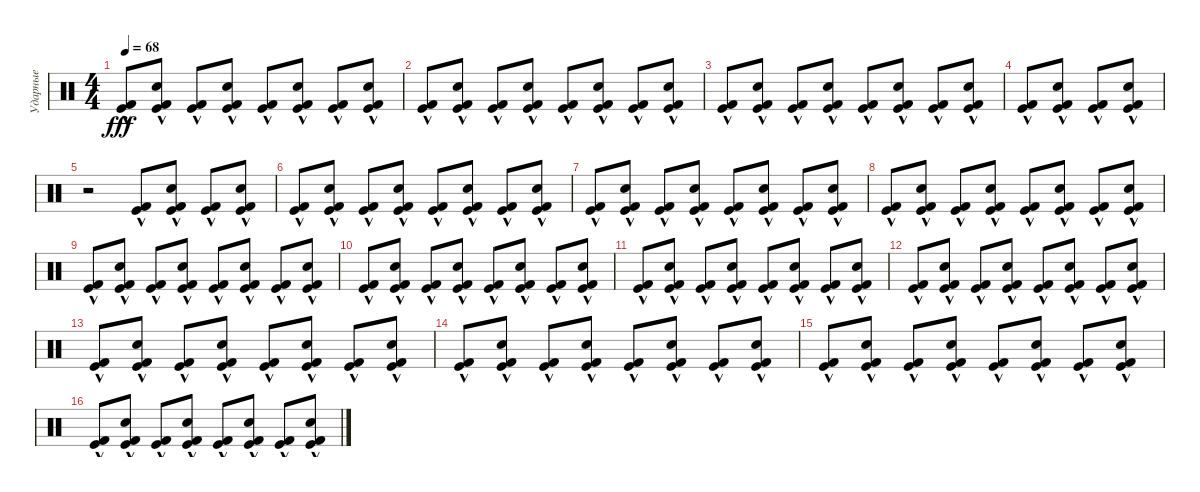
\track ("Ударные" "Ударные") {instrument percussion}
\staff {score}
\articulation defaults
\ts (4 4)
\tempo 68
\clef neutral
\ks c
("Kick (hit)"{hac} "Kick (hit) 2"{hac}).8{dy fff} ("Kick (hit)"{hac} "Kick (hit) 2"{hac} "Hand Clap (hit)").8 ("Kick (hit)"{hac} "Kick (hit) 2"{hac}).8 ("Kick (hit)"{hac} "Kick (hit) 2"{hac} "Hand Clap (hit)").8 ("Kick (hit)"{hac} "Kick (hit) 2"{hac}).8 ("Kick (hit)"{hac} "Kick (hit) 2"{hac} "Hand Clap (hit)").8 ("Kick (hit)"{hac} "Kick (hit) 2"{hac}).8 ("Kick (hit)"{hac} "Kick (hit) 2"{hac} "Hand Clap (hit)").8 |
("Kick (hit)"{hac} "Kick (hit) 2"{hac}).8 ("Kick (hit)"{hac} "Kick (hit) 2"{hac} "Hand Clap (hit)").8 ("Kick (hit)"{hac} "Kick (hit) 2"{hac}).8 ("Kick (hit)"{hac} "Kick (hit) 2"{hac} "Hand Clap (hit)").8 ("Kick (hit)"{hac} "Kick (hit) 2"{hac}).8 ("Kick (hit)"{hac} "Kick (hit) 2"{hac} "Hand Clap (hit)").8 ("Kick (hit)"{hac} "Kick (hit) 2"{hac}).8 ("Kick (hit)"{hac} "Kick (hit) 2"{hac} "Hand Clap (hit)").8 |
("Kick (hit)"{hac} "Kick (hit) 2"{hac}).8 ("Kick (hit)"{hac} "Kick (hit) 2"{hac} "Hand Clap (hit)").8 ("Kick (hit)"{hac} "Kick (hit) 2"{hac}).8 ("Kick (hit)"{hac} "Kick (hit) 2"{hac} "Hand Clap (hit)").8 ("Kick (hit)"{hac} "Kick (hit) 2"{hac}).8 ("Kick (hit)"{hac} "Kick (hit) 2"{hac} "Hand Clap (hit)").8 ("Kick (hit)"{hac} "Kick (hit) 2"{hac}).8 ("Kick (hit)"{hac} "Kick (hit) 2"{hac} "Hand Clap (hit)").8 |
("Kick (hit)"{hac} "Kick (hit) 2"{hac}).8 ("Kick (hit)"{hac} "Kick (hit) 2"{hac} "Hand Clap (hit)").8 ("Kick (hit)"{hac} "Kick (hit) 2"{hac}).8 ("Kick (hit)"{hac} "Kick (hit) 2"{hac} "Hand Clap (hit)").8 |
r.2 ("Kick (hit)"{hac} "Kick (hit) 2"{hac}).8 ("Kick (hit)"{hac} "Kick (hit) 2"{hac} "Hand Clap (hit)").8 ("Kick (hit)"{hac} "Kick (hit) 2"{hac}).8 ("Kick (hit)"{hac} "Kick (hit) 2"{hac} "Hand Clap (hit)").8 |
("Kick (hit)"{hac} "Kick (hit) 2"{hac}).8 ("Kick (hit)"{hac} "Kick (hit) 2"{hac} "Hand Clap (hit)").8 ("Kick (hit)"{hac} "Kick (hit) 2"{hac}).8 ("Kick (hit)"{hac} "Kick (hit) 2"{hac} "Hand Clap (hit)").8 ("Kick (hit)"{hac} "Kick (hit) 2"{hac}).8 ("Kick (hit)"{hac} "Kick (hit) 2"{hac} "Hand Clap (hit)").8 ("Kick (hit)"{hac} "Kick (hit) 2"{hac}).8 ("Kick (hit)"{hac} "Kick (hit) 2"{hac} "Hand Clap (hit)").8 |
("Kick (hit)"{hac} "Kick (hit) 2"{hac}).8 ("Kick (hit)"{hac} "Kick (hit) 2"{hac} "Hand Clap (hit)").8 ("Kick (hit)"{hac} "Kick (hit) 2"{hac}).8 ("Kick (hit)"{hac} "Kick (hit) 2"{hac} "Hand Clap (hit)").8 ("Kick (hit)"{hac} "Kick (hit) 2"{hac}).8 ("Kick (hit)"{hac} "Kick (hit) 2"{hac} "Hand Clap (hit)").8 ("Kick (hit)"{hac} "Kick (hit) 2"{hac}).8 ("Kick (hit)"{hac} "Kick (hit) 2"{hac} "Hand Clap (hit)").8 |
("Kick (hit)"{hac} "Kick (hit) 2"{hac}).8 ("Kick (hit)"{hac} "Kick (hit) 2"{hac} "Hand Clap (hit)").8 ("Kick (hit)"{hac} "Kick (hit) 2"{hac}).8 ("Kick (hit)"{hac} "Kick (hit) 2"{hac} "Hand Clap (hit)").8 ("Kick (hit)"{hac} "Kick (hit) 2"{hac}).8 ("Kick (hit)"{hac} "Kick (hit) 2"{hac} "Hand Clap (hit)").8 ("Kick (hit)"{hac} "Kick (hit) 2"{hac}).8 ("Kick (hit)"{hac} "Kick (hit) 2"{hac} "Hand Clap (hit)").8 |
("Kick (hit)"{hac} "Kick (hit) 2"{hac}).8 ("Kick (hit)"{hac} "Kick (hit) 2"{hac} "Hand Clap (hit)").8 ("Kick (hit)"{hac} "Kick (hit) 2"{hac}).8 ("Kick (hit)"{hac} "Kick (hit) 2"{hac} "Hand Clap (hit)").8 ("Kick (hit)"{hac} "Kick (hit) 2"{hac}).8 ("Kick (hit)"{hac} "Kick (hit) 2"{hac} "Hand Clap (hit)").8 ("Kick (hit)"{hac} "Kick (hit) 2"{hac}).8 ("Kick (hit)"{hac} "Kick (hit) 2"{hac} "Hand Clap (hit)").8 |
("Kick (hit)"{hac} "Kick (hit) 2"{hac}).8 ("Kick (hit)"{hac} "Kick (hit) 2"{hac} "Hand Clap (hit)").8 ("Kick (hit)"{hac} "Kick (hit) 2"{hac}).8 ("Kick (hit)"{hac} "Kick (hit) 2"{hac} "Hand Clap (hit)").8 ("Kick (hit)"{hac} "Kick (hit) 2"{hac}).8 ("Kick (hit)"{hac} "Kick (hit) 2"{hac} "Hand Clap (hit)").8 ("Kick (hit)"{hac} "Kick (hit) 2"{hac}).8 ("Kick (hit)"{hac} "Kick (hit) 2"{hac} "Hand Clap (hit)").8 |
("Kick (hit)"{hac} "Kick (hit) 2"{hac}).8 ("Kick (hit)"{hac} "Kick (hit) 2"{hac} "Hand Clap (hit)").8 ("Kick (hit)"{hac} "Kick (hit) 2"{hac}).8 ("Kick (hit)"{hac} "Kick (hit) 2"{hac} "Hand Clap (hit)").8 ("Kick (hit)"{hac} "Kick (hit) 2"{hac}).8 ("Kick (hit)"{hac} "Kick (hit) 2"{hac} "Hand Clap (hit)").8 ("Kick (hit)"{hac} "Kick (hit) 2"{hac}).8 ("Kick (hit)"{hac} "Kick (hit) 2"{hac} "Hand Clap (hit)").8 |
("Kick (hit)"{hac} "Kick (hit) 2"{hac}).8 ("Kick (hit)"{hac} "Kick (hit) 2"{hac} "Hand Clap (hit)").8 ("Kick (hit)"{hac} "Kick (hit) 2"{hac}).8 ("Kick (hit)"{hac} "Kick (hit) 2"{hac} "Hand Clap (hit)").8 ("Kick (hit)"{hac} "Kick (hit) 2"{hac}).8 ("Kick (hit)"{hac} "Kick (hit) 2"{hac} "Hand Clap (hit)").8 ("Kick (hit)"{hac} "Kick (hit) 2"{hac}).8 ("Kick (hit)"{hac} "Kick (hit) 2"{hac} "Hand Clap (hit)").8 |
("Kick (hit)"{hac} "Kick (hit) 2"{hac}).8 ("Kick (hit)"{hac} "Kick (hit) 2"{hac} "Hand Clap (hit)").8 ("Kick (hit)"{hac} "Kick (hit) 2"{hac}).8 ("Kick (hit)"{hac} "Kick (hit) 2"{hac} "Hand Clap (hit)").8 ("Kick (hit)"{hac} "Kick (hit) 2"{hac}).8 ("Kick (hit)"{hac} "Kick (hit) 2"{hac} "Hand Clap (hit)").8 ("Kick (hit)"{hac} "Kick (hit) 2"{hac}).8 ("Kick (hit)"{hac} "Kick (hit) 2"{hac} "Hand Clap (hit)").8 |
("Kick (hit)"{hac} "Kick (hit) 2"{hac}).8 ("Kick (hit)"{hac} "Kick (hit) 2"{hac} "Hand Clap (hit)").8 ("Kick (hit)"{hac} "Kick (hit) 2"{hac}).8 ("Kick (hit)"{hac} "Kick (hit) 2"{hac} "Hand Clap (hit)").8 ("Kick (hit)"{hac} "Kick (hit) 2"{hac}).8 ("Kick (hit)"{hac} "Kick (hit) 2"{hac} "Hand Clap (hit)").8 ("Kick (hit)"{hac} "Kick (hit) 2"{hac}).8 ("Kick (hit)"{hac} "Kick (hit) 2"{hac} "Hand Clap (hit)").8 |
("Kick (hit)"{hac} "Kick (hit) 2"{hac}).8 ("Kick (hit)"{hac} "Kick (hit) 2"{hac} "Hand Clap (hit)").8 ("Kick (hit)"{hac} "Kick (hit) 2"{hac}).8 ("Kick (hit)"{hac} "Kick (hit) 2"{hac} "Hand Clap (hit)").8 ("Kick (hit)"{hac} "Kick (hit) 2"{hac}).8 ("Kick (hit)"{hac} "Kick (hit) 2"{hac} "Hand Clap (hit)").8 ("Kick (hit)"{hac} "Kick (hit) 2"{hac}).8 ("Kick (hit)"{hac} "Kick (hit) 2"{hac} "Hand Clap (hit)").8 |
("Kick (hit)"{hac} "Kick (hit) 2"{hac}).8 ("Kick (hit)"{hac} "Kick (hit) 2"{hac} "Hand Clap (hit)").8 ("Kick (hit)"{hac} "Kick (hit) 2"{hac}).8 ("Kick (hit)"{hac} "Kick (hit) 2"{hac} "Hand Clap (hit)").8 ("Kick (hit)"{hac} "Kick (hit) 2"{hac}).8 ("Kick (hit)"{hac} "Kick (hit) 2"{hac} "Hand Clap (hit)").8 ("Kick (hit)"{hac} "Kick (hit) 2"{hac}).8 ("Kick (hit)"{hac} "Kick (hit) 2"{hac} "Hand Clap (hit)").8
